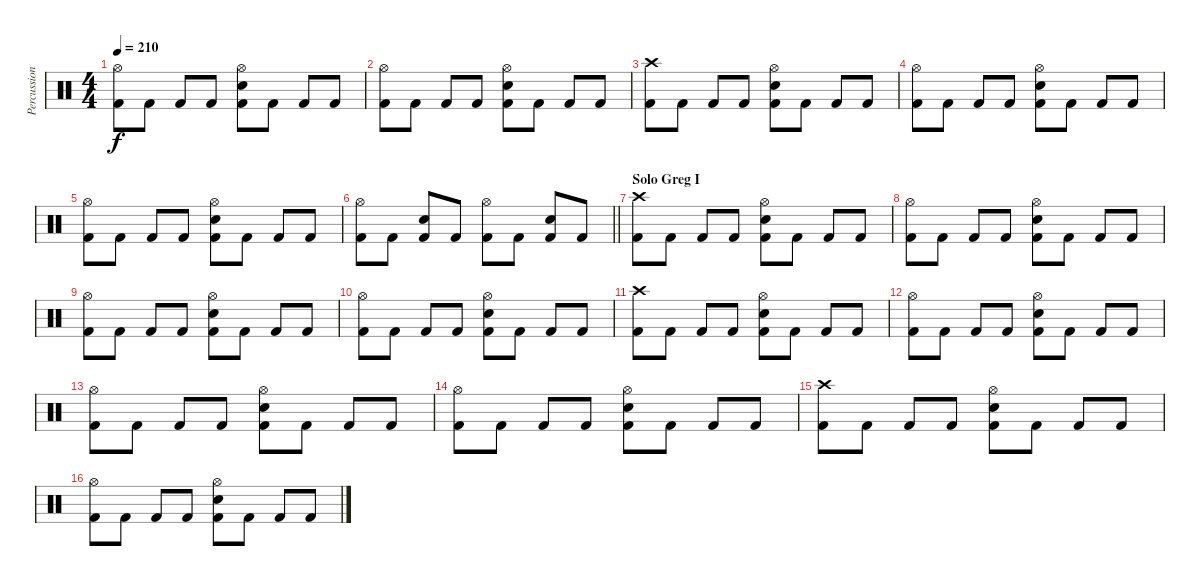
\track ("Percussion" "Percussion") {instrument percussion}
\staff {score}
\articulation defaults
\ts (4 4)
\tempo 210
\clef neutral
\ks c
("Hi-Hat (open)" "Kick (hit) 2").8{dy f} "Kick (hit) 2".8 "Kick (hit) 2".8 "Kick (hit) 2".8 ("Hi-Hat (open)" "Snare (hit) 2" "Kick (hit) 2").8 "Kick (hit) 2".8 "Kick (hit) 2".8 "Kick (hit) 2".8 |
("Hi-Hat (open)" "Kick (hit) 2").8 "Kick (hit) 2".8 "Kick (hit) 2".8 "Kick (hit) 2".8 ("Hi-Hat (open)" "Snare (hit) 2" "Kick (hit) 2").8 "Kick (hit) 2".8 "Kick (hit) 2".8 "Kick (hit) 2".8 |
("Crash high (hit)" "Kick (hit) 2").8 "Kick (hit) 2".8 "Kick (hit) 2".8 "Kick (hit) 2".8 ("Hi-Hat (open)" "Snare (hit) 2" "Kick (hit) 2").8 "Kick (hit) 2".8 "Kick (hit) 2".8 "Kick (hit) 2".8 |
("Hi-Hat (open)" "Kick (hit) 2").8 "Kick (hit) 2".8 "Kick (hit) 2".8 "Kick (hit) 2".8 ("Hi-Hat (open)" "Snare (hit) 2" "Kick (hit) 2").8 "Kick (hit) 2".8 "Kick (hit) 2".8 "Kick (hit) 2".8 |
("Hi-Hat (open)" "Kick (hit) 2").8 "Kick (hit) 2".8 "Kick (hit) 2".8 "Kick (hit) 2".8 ("Hi-Hat (open)" "Snare (hit) 2" "Kick (hit) 2").8 "Kick (hit) 2".8 "Kick (hit) 2".8 "Kick (hit) 2".8 |
\barLineRight lightlight
("Hi-Hat (open)" "Kick (hit) 2").8 "Kick (hit) 2".8 ("Snare (hit) 2" "Kick (hit) 2").8 "Kick (hit) 2".8 ("Hi-Hat (open)" "Kick (hit) 2").8 "Kick (hit) 2".8 ("Snare (hit) 2" "Kick (hit) 2").8 "Kick (hit) 2".8 |
\section ("" "Solo Greg I")
("Crash high (hit)" "Kick (hit) 2").8 "Kick (hit) 2".8 "Kick (hit) 2".8 "Kick (hit) 2".8 ("Hi-Hat (open)" "Snare (hit) 2" "Kick (hit) 2").8 "Kick (hit) 2".8 "Kick (hit) 2".8 "Kick (hit) 2".8 |
("Hi-Hat (open)" "Kick (hit) 2").8 "Kick (hit) 2".8 "Kick (hit) 2".8 "Kick (hit) 2".8 ("Hi-Hat (open)" "Snare (hit) 2" "Kick (hit) 2").8 "Kick (hit) 2".8 "Kick (hit) 2".8 "Kick (hit) 2".8 |
("Hi-Hat (open)" "Kick (hit) 2").8 "Kick (hit) 2".8 "Kick (hit) 2".8 "Kick (hit) 2".8 ("Hi-Hat (open)" "Snare (hit) 2" "Kick (hit) 2").8 "Kick (hit) 2".8 "Kick (hit) 2".8 "Kick (hit) 2".8 |
("Hi-Hat (open)" "Kick (hit) 2").8 "Kick (hit) 2".8 "Kick (hit) 2".8 "Kick (hit) 2".8 ("Hi-Hat (open)" "Snare (hit) 2" "Kick (hit) 2").8 "Kick (hit) 2".8 "Kick (hit) 2".8 "Kick (hit) 2".8 |
("Crash high (hit)" "Kick (hit) 2").8 "Kick (hit) 2".8 "Kick (hit) 2".8 "Kick (hit) 2".8 ("Hi-Hat (open)" "Snare (hit) 2" "Kick (hit) 2").8 "Kick (hit) 2".8 "Kick (hit) 2".8 "Kick (hit) 2".8 |
("Hi-Hat (open)" "Kick (hit) 2").8 "Kick (hit) 2".8 "Kick (hit) 2".8 "Kick (hit) 2".8 ("Hi-Hat (open)" "Snare (hit) 2" "Kick (hit) 2").8 "Kick (hit) 2".8 "Kick (hit) 2".8 "Kick (hit) 2".8 |
("Hi-Hat (open)" "Kick (hit) 2").8 "Kick (hit) 2".8 "Kick (hit) 2".8 "Kick (hit) 2".8 ("Hi-Hat (open)" "Snare (hit) 2" "Kick (hit) 2").8 "Kick (hit) 2".8 "Kick (hit) 2".8 "Kick (hit) 2".8 |
("Hi-Hat (open)" "Kick (hit) 2").8 "Kick (hit) 2".8 "Kick (hit) 2".8 "Kick (hit) 2".8 ("Hi-Hat (open)" "Snare (hit) 2" "Kick (hit) 2").8 "Kick (hit) 2".8 "Kick (hit) 2".8 "Kick (hit) 2".8 |
("Crash high (hit)" "Kick (hit) 2").8 "Kick (hit) 2".8 "Kick (hit) 2".8 "Kick (hit) 2".8 ("Hi-Hat (open)" "Snare (hit) 2" "Kick (hit) 2").8 "Kick (hit) 2".8 "Kick (hit) 2".8 "Kick (hit) 2".8 |
("Hi-Hat (open)" "Kick (hit) 2").8 "Kick (hit) 2".8 "Kick (hit) 2".8 "Kick (hit) 2".8 ("Hi-Hat (open)" "Snare (hit) 2" "Kick (hit) 2").8 "Kick (hit) 2".8 "Kick (hit) 2".8 "Kick (hit) 2".8
